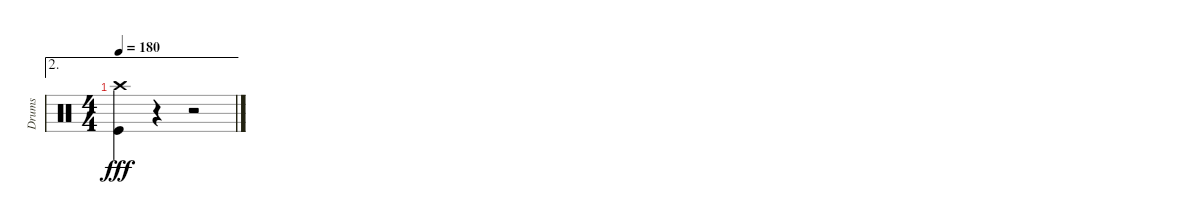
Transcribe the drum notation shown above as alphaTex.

\track ("Drums" "Drums") {instrument percussion}
\staff {score}
\articulation defaults
\ae 2
\ts (4 4)
\tempo 180
\clef neutral
\ks c
("Crash high (hit)" "Kick (hit)").4{dy fff} r.4 r.2
